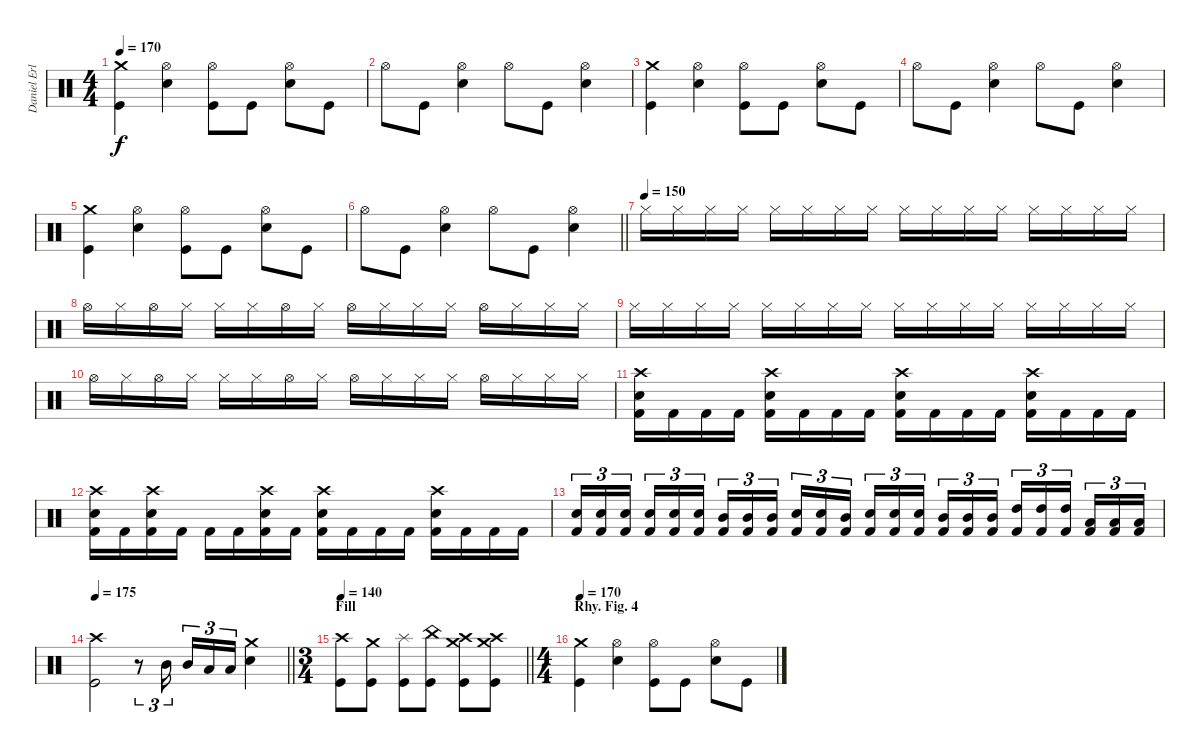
\track ("Daniel Erlandson" "Daniel Erl") {instrument percussion}
\staff {score}
\articulation defaults
\ts (4 4)
\tempo 170
\clef neutral
\ks c
("Crash medium (hit)" "Kick (hit)").4{dy f} ("Hi-Hat (open)" "Electric Snare (hit)").4 ("Hi-Hat (open)" "Kick (hit)").8 "Kick (hit)".8 ("Hi-Hat (open)" "Electric Snare (hit)").8 "Kick (hit)".8 |
"Hi-Hat (open)".8 "Kick (hit)".8 ("Hi-Hat (open)" "Electric Snare (hit)").4 "Hi-Hat (open)".8 "Kick (hit)".8 ("Hi-Hat (open)" "Electric Snare (hit)").4 |
("Crash medium (hit)" "Kick (hit)").4 ("Hi-Hat (open)" "Electric Snare (hit)").4 ("Hi-Hat (open)" "Kick (hit)").8 "Kick (hit)".8 ("Hi-Hat (open)" "Electric Snare (hit)").8 "Kick (hit)".8 |
"Hi-Hat (open)".8 "Kick (hit)".8 ("Hi-Hat (open)" "Electric Snare (hit)").4 "Hi-Hat (open)".8 "Kick (hit)".8 ("Hi-Hat (open)" "Electric Snare (hit)").4 |
("Crash medium (hit)" "Kick (hit)").4 ("Hi-Hat (open)" "Electric Snare (hit)").4 ("Hi-Hat (open)" "Kick (hit)").8 "Kick (hit)".8 ("Hi-Hat (open)" "Electric Snare (hit)").8 "Kick (hit)".8 |
\barLineRight lightlight "Hi-Hat (open)".8 "Kick (hit)".8
("Hi-Hat (open)" "Electric Snare (hit)").4 "Hi-Hat (open)".8 "Kick (hit)".8 ("Hi-Hat (open)" "Electric Snare (hit)").4 |
\tempo (150)
"Hi-Hat (closed)".16 "Hi-Hat (closed)".16 "Hi-Hat (closed)".16 "Hi-Hat (closed)".16 "Hi-Hat (closed)".16 "Hi-Hat (closed)".16 "Hi-Hat (closed)".16 "Hi-Hat (closed)".16 "Hi-Hat (closed)".16 "Hi-Hat (closed)".16 "Hi-Hat (closed)".16 "Hi-Hat (closed)".16 "Hi-Hat (closed)".16 "Hi-Hat (closed)".16 "Hi-Hat (closed)".16 "Hi-Hat (closed)".16 |
"Hi-Hat (open)".16 "Hi-Hat (closed)".16 "Hi-Hat (open)".16 "Hi-Hat (closed)".16 "Hi-Hat (closed)".16 "Hi-Hat (closed)".16 "Hi-Hat (open)".16 "Hi-Hat (closed)".16 "Hi-Hat (open)".16 "Hi-Hat (closed)".16 "Hi-Hat (closed)".16 "Hi-Hat (closed)".16 "Hi-Hat (open)".16 "Hi-Hat (closed)".16 "Hi-Hat (closed)".16 "Hi-Hat (closed)".16 |
"Hi-Hat (closed)".16 "Hi-Hat (closed)".16 "Hi-Hat (closed)".16 "Hi-Hat (closed)".16 "Hi-Hat (closed)".16 "Hi-Hat (closed)".16 "Hi-Hat (closed)".16 "Hi-Hat (closed)".16 "Hi-Hat (closed)".16 "Hi-Hat (closed)".16 "Hi-Hat (closed)".16 "Hi-Hat (closed)".16 "Hi-Hat (closed)".16 "Hi-Hat (closed)".16 "Hi-Hat (closed)".16 "Hi-Hat (closed)".16 |
"Hi-Hat (open)".16 "Hi-Hat (closed)".16 "Hi-Hat (open)".16 "Hi-Hat (closed)".16 "Hi-Hat (closed)".16 "Hi-Hat (closed)".16 "Hi-Hat (open)".16 "Hi-Hat (closed)".16 "Hi-Hat (open)".16 "Hi-Hat (closed)".16 "Hi-Hat (closed)".16 "Hi-Hat (closed)".16 "Hi-Hat (open)".16 "Hi-Hat (closed)".16 "Hi-Hat (closed)".16 "Hi-Hat (closed)".16 |
("Crash high (hit)" "Snare (hit) 2" "Kick (hit) 2").16 "Kick (hit) 2".16 "Kick (hit) 2".16 "Kick (hit) 2".16 ("Crash high (hit)" "Snare (hit) 2" "Kick (hit) 2").16 "Kick (hit) 2".16 "Kick (hit) 2".16 "Kick (hit) 2".16 ("Crash high (hit)" "Snare (hit) 2" "Kick (hit) 2").16 "Kick (hit) 2".16 "Kick (hit) 2".16 "Kick (hit) 2".16 ("Crash high (hit)" "Snare (hit) 2" "Kick (hit) 2").16 "Kick (hit) 2".16 "Kick (hit) 2".16 "Kick (hit) 2".16 |
("Crash high (hit)" "Snare (hit) 2" "Kick (hit) 2").16 "Kick (hit) 2".16 ("Crash high (hit)" "Snare (hit) 2" "Kick (hit) 2").16 "Kick (hit) 2".16 "Kick (hit) 2".16 "Kick (hit) 2".16 ("Crash high (hit)" "Snare (hit) 2" "Kick (hit) 2").16 "Kick (hit) 2".16 ("Crash high (hit)" "Snare (hit) 2" "Kick (hit) 2").16 "Kick (hit) 2".16 "Kick (hit) 2".16 "Kick (hit) 2".16 ("Crash high (hit)" "Snare (hit) 2" "Kick (hit) 2").16 "Kick (hit) 2".16 "Kick (hit) 2".16 "Kick (hit) 2".16 |
("Electric Snare (hit)" "Kick (hit) 2").16{tu (3 2)} ("Electric Snare (hit)" "Kick (hit) 2").16{tu (3 2)} ("Electric Snare (hit)" "Kick (hit) 2").16{tu (3 2) beam splitsecondary} ("Electric Snare (hit)" "Kick (hit) 2").16{tu (3 2)} ("Electric Snare (hit)" "Kick (hit) 2").16{tu (3 2)} ("Electric Snare (hit)" "Kick (hit) 2").16{tu (3 2)} ("Mid Tom (hit)" "Kick (hit) 2").16{tu (3 2)} ("Mid Tom (hit)" "Kick (hit) 2").16{tu (3 2)} ("Mid Tom (hit)" "Kick (hit) 2").16{tu (3 2) beam splitsecondary} ("Electric Snare (hit)" "Kick (hit) 2").16{tu (3 2)} ("Electric Snare (hit)" "Kick (hit) 2").16{tu (3 2)} ("Mid Tom (hit)" "Kick (hit) 2").16{tu (3 2)} ("Electric Snare (hit)" "Kick (hit) 2").16{tu (3 2)} ("Electric Snare (hit)" "Kick (hit) 2").16{tu (3 2)} ("Electric Snare (hit)" "Kick (hit) 2").16{tu (3 2) beam splitsecondary} ("Mid Tom (hit)" "Kick (hit) 2").16{tu (3 2)} ("Mid Tom (hit)" "Kick (hit) 2").16{tu (3 2)} ("Mid Tom (hit)" "Kick (hit) 2").16{tu (3 2)} ("High Tom (hit)" "Kick (hit) 2").16{tu (3 2)} ("High Tom (hit)" "Kick (hit) 2").16{tu (3 2)} ("High Tom (hit)" "Kick (hit) 2").16{tu (3 2) beam splitsecondary} ("Low Tom (hit)" "Kick (hit) 2").16{tu (3 2)} ("Low Tom (hit)" "Kick (hit) 2").16{tu (3 2)} ("Low Tom (hit)" "Kick (hit) 2").16{tu (3 2)} |
\tempo 175
\barLineRight lightlight
("Crash high (hit)" "Kick (hit)").2 r.8{tu (3 2)} "Mid Tom (hit)".16{tu (3 2) beam splitsecondary} "Mid Tom (hit)".16{tu (3 2)} "Low Tom (hit)".16{tu (3 2)} "Low Tom (hit)".16{tu (3 2)} ("Crash medium (hit)" "Electric Snare (hit)").4 |
\ts (3 4)
\section ("" "Fill")
\tempo 140
\barLineRight lightlight
("Crash high (hit)" "Kick (hit)").8 ("Crash medium (hit)" "Kick (hit)").8 ("Splash (hit)" "Kick (hit)").8 ("China (hit)" "Kick (hit)").8 ("Crash medium (hit)" "Crash high (hit)" "Kick (hit)").8 ("Crash medium (hit)" "Crash high (hit)" "Kick (hit)").8 |
\ts (4 4)
\section ("" "Rhy. Fig. 4")
\tempo 170
("Crash medium (hit)" "Kick (hit)").4 ("Hi-Hat (open)" "Electric Snare (hit)").4 ("Hi-Hat (open)" "Kick (hit)").8 "Kick (hit)".8 ("Hi-Hat (open)" "Electric Snare (hit)").8 "Kick (hit)".8
